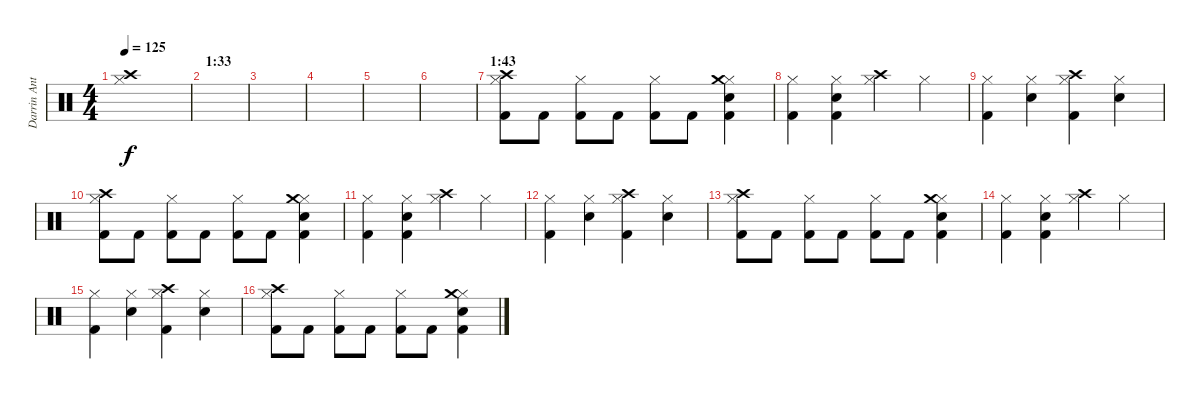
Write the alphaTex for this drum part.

\track ("Darrin Anthony (Drums)" "Darrin Ant") {instrument percussion}
\staff {score}
\articulation defaults
\ts (4 4)
\tempo 125
\clef neutral
\ks c
("Hi-Hat (closed)" "Crash high (hit)").1{dy f} |
\section ("" "1:33")
|
|
|
|
|
\section ("" "1:43")
("Kick (hit) 2" "Hi-Hat (closed)" "Crash high (hit)").8 "Kick (hit) 2".8 ("Kick (hit) 2" "Hi-Hat (closed)").8 "Kick (hit) 2".8 ("Kick (hit) 2" "Hi-Hat (closed)").8 "Kick (hit) 2".8 ("Kick (hit) 2" "Electric Snare (hit)" "Hi-Hat (closed)" "Crash medium (hit)").4 |
("Kick (hit) 2" "Hi-Hat (closed)").4 ("Kick (hit) 2" "Electric Snare (hit)" "Hi-Hat (closed)").4 ("Hi-Hat (closed)" "Crash high (hit)").4 "Hi-Hat (closed)".4 |
("Kick (hit) 2" "Hi-Hat (closed)").4 ("Electric Snare (hit)" "Hi-Hat (closed)").4 ("Kick (hit) 2" "Hi-Hat (closed)" "Crash high (hit)").4 ("Electric Snare (hit)" "Hi-Hat (closed)").4 |
("Kick (hit) 2" "Hi-Hat (closed)" "Crash high (hit)").8 "Kick (hit) 2".8 ("Kick (hit) 2" "Hi-Hat (closed)").8 "Kick (hit) 2".8 ("Kick (hit) 2" "Hi-Hat (closed)").8 "Kick (hit) 2".8 ("Kick (hit) 2" "Electric Snare (hit)" "Hi-Hat (closed)" "Crash medium (hit)").4 |
("Kick (hit) 2" "Hi-Hat (closed)").4 ("Kick (hit) 2" "Electric Snare (hit)" "Hi-Hat (closed)").4 ("Hi-Hat (closed)" "Crash high (hit)").4 "Hi-Hat (closed)".4 |
("Kick (hit) 2" "Hi-Hat (closed)").4 ("Electric Snare (hit)" "Hi-Hat (closed)").4 ("Kick (hit) 2" "Hi-Hat (closed)" "Crash high (hit)").4 ("Electric Snare (hit)" "Hi-Hat (closed)").4 |
("Kick (hit) 2" "Hi-Hat (closed)" "Crash high (hit)").8 "Kick (hit) 2".8 ("Kick (hit) 2" "Hi-Hat (closed)").8 "Kick (hit) 2".8 ("Kick (hit) 2" "Hi-Hat (closed)").8 "Kick (hit) 2".8 ("Kick (hit) 2" "Electric Snare (hit)" "Hi-Hat (closed)" "Crash medium (hit)").4 |
("Kick (hit) 2" "Hi-Hat (closed)").4 ("Kick (hit) 2" "Electric Snare (hit)" "Hi-Hat (closed)").4 ("Hi-Hat (closed)" "Crash high (hit)").4 "Hi-Hat (closed)".4 |
("Kick (hit) 2" "Hi-Hat (closed)").4 ("Electric Snare (hit)" "Hi-Hat (closed)").4 ("Kick (hit) 2" "Hi-Hat (closed)" "Crash high (hit)").4 ("Electric Snare (hit)" "Hi-Hat (closed)").4 |
("Kick (hit) 2" "Hi-Hat (closed)" "Crash high (hit)").8 "Kick (hit) 2".8 ("Kick (hit) 2" "Hi-Hat (closed)").8 "Kick (hit) 2".8 ("Kick (hit) 2" "Hi-Hat (closed)").8 "Kick (hit) 2".8 ("Kick (hit) 2" "Electric Snare (hit)" "Hi-Hat (closed)" "Crash medium (hit)").4
